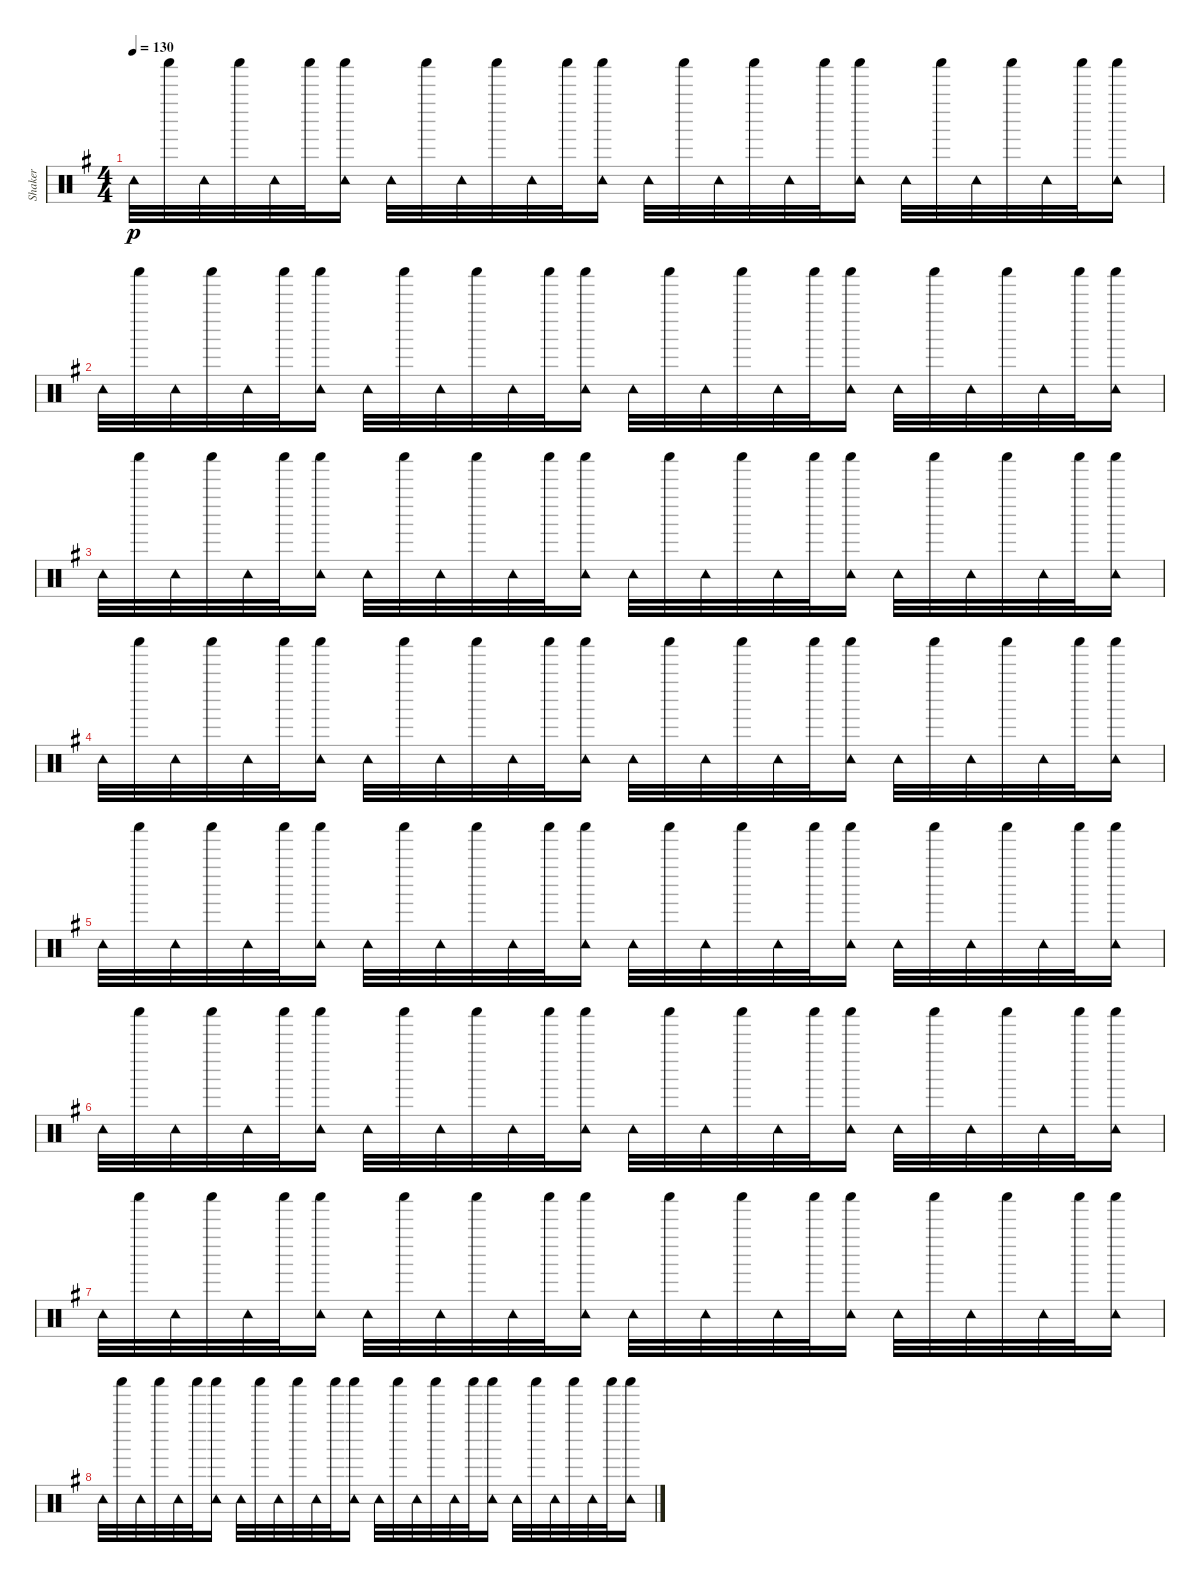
\track ("Shaker" "Shaker") {instrument percussion}
\staff {score}
\articulation defaults
\ts (4 4)
\tempo 130
\clef neutral
\ks g "Tambourine (hit)".32{dy p} "Shaker (hit)".32 "Tambourine (hit)".32 "Shaker (hit)".32 "Tambourine (hit)".32 "Shaker (hit)".32
("Tambourine (hit)" "Shaker (hit)").16 "Tambourine (hit)".32 "Shaker (hit)".32 "Tambourine (hit)".32 "Shaker (hit)".32 "Tambourine (hit)".32 "Shaker (hit)".32 ("Tambourine (hit)" "Shaker (hit)").16 "Tambourine (hit)".32 "Shaker (hit)".32 "Tambourine (hit)".32 "Shaker (hit)".32 "Tambourine (hit)".32 "Shaker (hit)".32 ("Tambourine (hit)" "Shaker (hit)").16 "Tambourine (hit)".32 "Shaker (hit)".32 "Tambourine (hit)".32 "Shaker (hit)".32 "Tambourine (hit)".32 "Shaker (hit)".32 ("Tambourine (hit)" "Shaker (hit)").16 |
"Tambourine (hit)".32 "Shaker (hit)".32 "Tambourine (hit)".32 "Shaker (hit)".32 "Tambourine (hit)".32 "Shaker (hit)".32 ("Tambourine (hit)" "Shaker (hit)").16 "Tambourine (hit)".32 "Shaker (hit)".32 "Tambourine (hit)".32 "Shaker (hit)".32 "Tambourine (hit)".32 "Shaker (hit)".32 ("Tambourine (hit)" "Shaker (hit)").16 "Tambourine (hit)".32 "Shaker (hit)".32 "Tambourine (hit)".32 "Shaker (hit)".32 "Tambourine (hit)".32 "Shaker (hit)".32 ("Tambourine (hit)" "Shaker (hit)").16 "Tambourine (hit)".32 "Shaker (hit)".32 "Tambourine (hit)".32 "Shaker (hit)".32 "Tambourine (hit)".32 "Shaker (hit)".32 ("Tambourine (hit)" "Shaker (hit)").16 |
"Tambourine (hit)".32 "Shaker (hit)".32 "Tambourine (hit)".32 "Shaker (hit)".32 "Tambourine (hit)".32 "Shaker (hit)".32 ("Tambourine (hit)" "Shaker (hit)").16 "Tambourine (hit)".32 "Shaker (hit)".32 "Tambourine (hit)".32 "Shaker (hit)".32 "Tambourine (hit)".32 "Shaker (hit)".32 ("Tambourine (hit)" "Shaker (hit)").16 "Tambourine (hit)".32 "Shaker (hit)".32 "Tambourine (hit)".32 "Shaker (hit)".32 "Tambourine (hit)".32 "Shaker (hit)".32 ("Tambourine (hit)" "Shaker (hit)").16 "Tambourine (hit)".32 "Shaker (hit)".32 "Tambourine (hit)".32 "Shaker (hit)".32 "Tambourine (hit)".32 "Shaker (hit)".32 ("Tambourine (hit)" "Shaker (hit)").16 |
"Tambourine (hit)".32 "Shaker (hit)".32 "Tambourine (hit)".32 "Shaker (hit)".32 "Tambourine (hit)".32 "Shaker (hit)".32 ("Tambourine (hit)" "Shaker (hit)").16 "Tambourine (hit)".32 "Shaker (hit)".32 "Tambourine (hit)".32 "Shaker (hit)".32 "Tambourine (hit)".32 "Shaker (hit)".32 ("Tambourine (hit)" "Shaker (hit)").16 "Tambourine (hit)".32 "Shaker (hit)".32 "Tambourine (hit)".32 "Shaker (hit)".32 "Tambourine (hit)".32 "Shaker (hit)".32 ("Tambourine (hit)" "Shaker (hit)").16 "Tambourine (hit)".32 "Shaker (hit)".32 "Tambourine (hit)".32 "Shaker (hit)".32 "Tambourine (hit)".32 "Shaker (hit)".32 ("Tambourine (hit)" "Shaker (hit)").16 |
"Tambourine (hit)".32 "Shaker (hit)".32 "Tambourine (hit)".32 "Shaker (hit)".32 "Tambourine (hit)".32 "Shaker (hit)".32 ("Tambourine (hit)" "Shaker (hit)").16 "Tambourine (hit)".32 "Shaker (hit)".32 "Tambourine (hit)".32 "Shaker (hit)".32 "Tambourine (hit)".32 "Shaker (hit)".32 ("Tambourine (hit)" "Shaker (hit)").16 "Tambourine (hit)".32 "Shaker (hit)".32 "Tambourine (hit)".32 "Shaker (hit)".32 "Tambourine (hit)".32 "Shaker (hit)".32 ("Tambourine (hit)" "Shaker (hit)").16 "Tambourine (hit)".32 "Shaker (hit)".32 "Tambourine (hit)".32 "Shaker (hit)".32 "Tambourine (hit)".32 "Shaker (hit)".32 ("Tambourine (hit)" "Shaker (hit)").16 |
"Tambourine (hit)".32 "Shaker (hit)".32 "Tambourine (hit)".32 "Shaker (hit)".32 "Tambourine (hit)".32 "Shaker (hit)".32 ("Tambourine (hit)" "Shaker (hit)").16 "Tambourine (hit)".32 "Shaker (hit)".32 "Tambourine (hit)".32 "Shaker (hit)".32 "Tambourine (hit)".32 "Shaker (hit)".32 ("Tambourine (hit)" "Shaker (hit)").16 "Tambourine (hit)".32 "Shaker (hit)".32 "Tambourine (hit)".32 "Shaker (hit)".32 "Tambourine (hit)".32 "Shaker (hit)".32 ("Tambourine (hit)" "Shaker (hit)").16 "Tambourine (hit)".32 "Shaker (hit)".32 "Tambourine (hit)".32 "Shaker (hit)".32 "Tambourine (hit)".32 "Shaker (hit)".32 ("Tambourine (hit)" "Shaker (hit)").16 |
"Tambourine (hit)".32 "Shaker (hit)".32 "Tambourine (hit)".32 "Shaker (hit)".32 "Tambourine (hit)".32 "Shaker (hit)".32 ("Tambourine (hit)" "Shaker (hit)").16 "Tambourine (hit)".32 "Shaker (hit)".32 "Tambourine (hit)".32 "Shaker (hit)".32 "Tambourine (hit)".32 "Shaker (hit)".32 ("Tambourine (hit)" "Shaker (hit)").16 "Tambourine (hit)".32 "Shaker (hit)".32 "Tambourine (hit)".32 "Shaker (hit)".32 "Tambourine (hit)".32 "Shaker (hit)".32 ("Tambourine (hit)" "Shaker (hit)").16 "Tambourine (hit)".32 "Shaker (hit)".32 "Tambourine (hit)".32 "Shaker (hit)".32 "Tambourine (hit)".32 "Shaker (hit)".32 ("Tambourine (hit)" "Shaker (hit)").16 |
"Tambourine (hit)".32 "Shaker (hit)".32 "Tambourine (hit)".32 "Shaker (hit)".32 "Tambourine (hit)".32 "Shaker (hit)".32 ("Tambourine (hit)" "Shaker (hit)").16 "Tambourine (hit)".32 "Shaker (hit)".32 "Tambourine (hit)".32 "Shaker (hit)".32 "Tambourine (hit)".32 "Shaker (hit)".32 ("Tambourine (hit)" "Shaker (hit)").16 "Tambourine (hit)".32 "Shaker (hit)".32 "Tambourine (hit)".32 "Shaker (hit)".32 "Tambourine (hit)".32 "Shaker (hit)".32 ("Tambourine (hit)" "Shaker (hit)").16 "Tambourine (hit)".32 "Shaker (hit)".32 "Tambourine (hit)".32 "Shaker (hit)".32 "Tambourine (hit)".32 "Shaker (hit)".32 ("Tambourine (hit)" "Shaker (hit)").16
